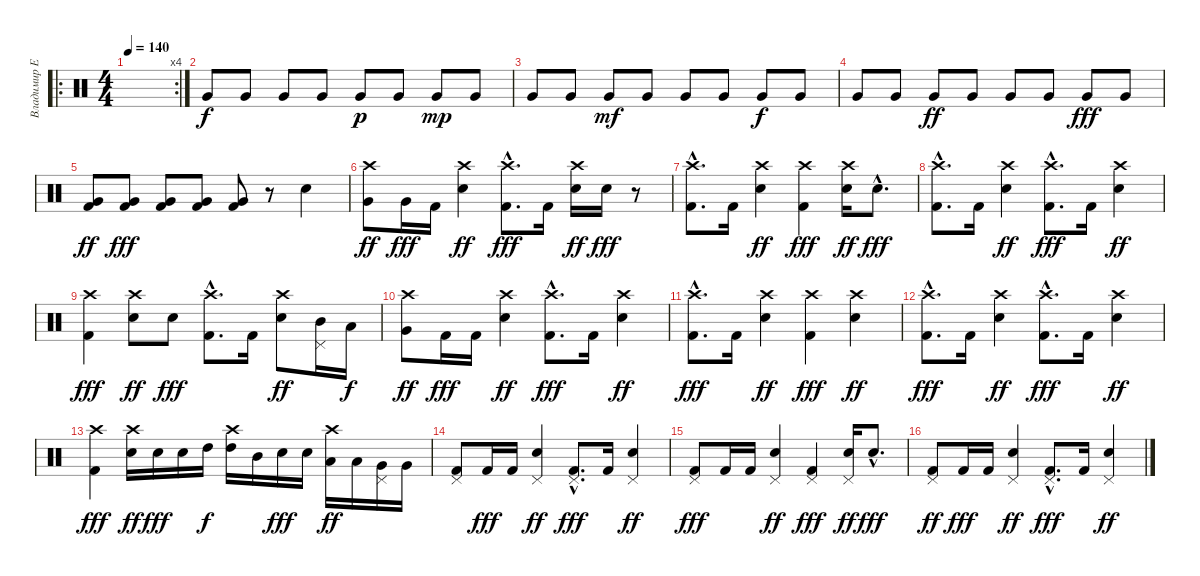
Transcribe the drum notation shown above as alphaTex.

\track ("Владимир Ермаков" "Владимир Е") {instrument percussion}
\staff {score}
\articulation defaults
\ro
\rc 4
\ts (4 4)
\tempo 140
\clef neutral
\ks c
|
"Very Low Tom (hit)".8 "Very Low Tom (hit)".8 "Very Low Tom (hit)".8 "Very Low Tom (hit)".8 "Very Low Tom (hit)".8{dy p} "Very Low Tom (hit)".8 "Very Low Tom (hit)".8{dy mp} "Very Low Tom (hit)".8 |
"Very Low Tom (hit)".8 "Very Low Tom (hit)".8 "Very Low Tom (hit)".8{dy mf} "Very Low Tom (hit)".8 "Very Low Tom (hit)".8 "Very Low Tom (hit)".8 "Very Low Tom (hit)".8{dy f} "Very Low Tom (hit)".8 |
"Very Low Tom (hit)".8 "Very Low Tom (hit)".8 "Very Low Tom (hit)".8{dy ff} "Very Low Tom (hit)".8 "Very Low Tom (hit)".8 "Very Low Tom (hit)".8 "Very Low Tom (hit)".8{dy fff} "Very Low Tom (hit)".8 |
("Very Low Tom (hit)" "Kick (hit) 2").8{dy ff} ("Very Low Tom (hit)" "Kick (hit) 2").8{dy fff} ("Very Low Tom (hit)" "Kick (hit) 2").8 ("Very Low Tom (hit)" "Kick (hit) 2").8 ("Very Low Tom (hit)" "Kick (hit) 2").8 r.8 "Electric Snare (hit)".4 |
("Very Low Tom (hit)" "Crash high (hit)").8{dy ff} "Very Low Tom (hit)".16{dy fff} "Kick (hit) 2".16 ("Electric Snare (hit)" "Crash high (hit)").4{dy ff} ("Kick (hit) 2"{hac} "Crash high (hit)"{hac}).8{d dy fff} "Kick (hit) 2".16 ("Electric Snare (hit)" "Crash high (hit)").16{dy ff} "Electric Snare (hit)".16{dy fff} r.8 |
("Kick (hit) 2"{hac} "Crash high (hit)"{hac}).8{d} "Kick (hit) 2".16 ("Electric Snare (hit)" "Crash high (hit)").4{dy ff} ("Kick (hit) 2" "Crash high (hit)").4{dy fff} ("Electric Snare (hit)" "Crash high (hit)").16{dy ff} "Electric Snare (hit)"{hac}.8{d dy fff} |
("Kick (hit) 2"{hac} "Crash high (hit)"{hac}).8{d} "Kick (hit) 2".16 ("Electric Snare (hit)" "Crash high (hit)").4{dy ff} ("Kick (hit) 2"{hac} "Crash high (hit)"{hac}).8{d dy fff} "Kick (hit) 2".16 ("Electric Snare (hit)" "Crash high (hit)").4{dy ff} |
("Kick (hit) 2" "Crash high (hit)").4{dy fff} ("Electric Snare (hit)" "Crash high (hit)").8{dy ff} "Electric Snare (hit)".8{dy fff} ("Kick (hit) 2"{hac} "Crash high (hit)"{hac}).8{d} "Kick (hit) 2".16 ("Electric Snare (hit)" "Crash high (hit)").8{dy ff} ("Mid Tom (hit)" "Pedal Hi-Hat (hit)").16 "Low Tom (hit)".16{dy f} |
("Very Low Tom (hit)" "Crash high (hit)").8{dy ff} "Kick (hit) 2".16{dy fff} "Kick (hit) 2".16 ("Electric Snare (hit)" "Crash high (hit)").4{dy ff} ("Kick (hit) 2"{hac} "Crash high (hit)"{hac}).8{d dy fff} "Kick (hit) 2".16 ("Electric Snare (hit)" "Crash high (hit)").4{dy ff} |
("Kick (hit) 2"{hac} "Crash high (hit)"{hac}).8{d dy fff} "Kick (hit) 2".16 ("Electric Snare (hit)" "Crash high (hit)").4{dy ff} ("Kick (hit) 2" "Crash high (hit)").4{dy fff} ("Electric Snare (hit)" "Crash high (hit)").4{dy ff} |
("Kick (hit) 2"{hac} "Crash high (hit)"{hac}).8{d dy fff} "Kick (hit) 2".16 ("Electric Snare (hit)" "Crash high (hit)").4{dy ff} ("Kick (hit) 2"{hac} "Crash high (hit)"{hac}).8{d dy fff} "Kick (hit) 2".16 ("Electric Snare (hit)" "Crash high (hit)").4{dy ff} |
("Kick (hit) 2" "Crash high (hit)").4{dy fff} ("Electric Snare (hit)" "Crash high (hit)").16{dy ff} "Electric Snare (hit)".16{dy fff} "Electric Snare (hit)".16 "High Tom (hit)".16{dy f} ("High Tom (hit)" "Crash high (hit)").16 "Mid Tom (hit)".16 "Electric Snare (hit)".16{dy fff} "Electric Snare (hit)".16 ("Low Tom (hit)" "Crash high (hit)").16{dy ff} "Low Tom (hit)".16 ("Very Low Tom (hit)" "Pedal Hi-Hat (hit)").16 "Very Low Tom (hit)".16 |
("Kick (hit) 2" "Pedal Hi-Hat (hit)").8 "Kick (hit) 2".16{dy fff} "Kick (hit) 2".16 ("Electric Snare (hit)" "Pedal Hi-Hat (hit)").4{dy ff} ("Kick (hit) 2"{hac} "Pedal Hi-Hat (hit)"{hac}).8{d dy fff} "Kick (hit) 2".16 ("Electric Snare (hit)" "Pedal Hi-Hat (hit)").4{dy ff} |
("Kick (hit) 2" "Pedal Hi-Hat (hit)").8{dy fff} "Kick (hit) 2".16 "Kick (hit) 2".16 ("Electric Snare (hit)" "Pedal Hi-Hat (hit)").4{dy ff} ("Kick (hit) 2" "Pedal Hi-Hat (hit)").4{dy fff} ("Electric Snare (hit)" "Pedal Hi-Hat (hit)").16{dy ff} "Electric Snare (hit)"{hac}.8{d dy fff} |
("Kick (hit) 2" "Pedal Hi-Hat (hit)").8{dy ff} "Kick (hit) 2".16{dy fff} "Kick (hit) 2".16 ("Electric Snare (hit)" "Pedal Hi-Hat (hit)").4{dy ff} ("Kick (hit) 2"{hac} "Pedal Hi-Hat (hit)"{hac}).8{d dy fff} "Kick (hit) 2".16 ("Electric Snare (hit)" "Pedal Hi-Hat (hit)").4{dy ff}
